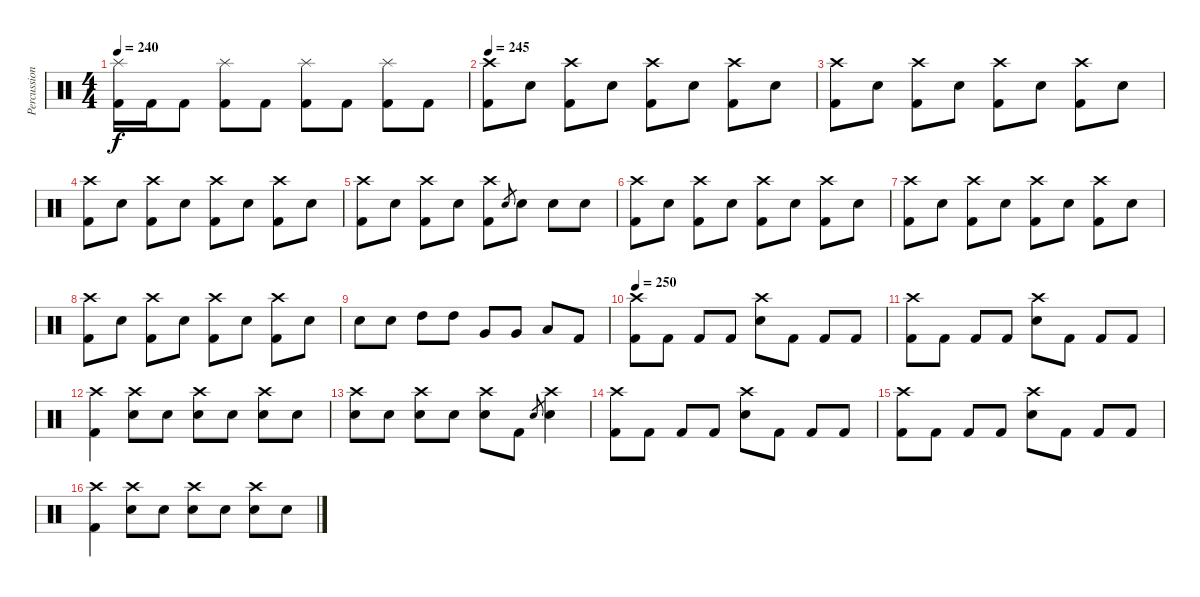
\track ("Percussion" "Percussion") {instrument percussion}
\staff {score}
\articulation defaults
\ts (4 4)
\tempo 240
\clef neutral
\ks c
("Splash (hit)" "Kick (hit) 2").16{dy f} "Kick (hit) 2".16 "Kick (hit) 2".8 ("Splash (hit)" "Kick (hit) 2").8 "Kick (hit) 2".8 ("Splash (hit)" "Kick (hit) 2").8 "Kick (hit) 2".8 ("Splash (hit)" "Kick (hit) 2").8 "Kick (hit) 2".8 |
\tempo 245
("Crash high (hit)" "Kick (hit) 2").8 "Electric Snare (hit)".8 ("Crash high (hit)" "Kick (hit) 2").8 "Electric Snare (hit)".8 ("Crash high (hit)" "Kick (hit) 2").8 "Electric Snare (hit)".8 ("Crash high (hit)" "Kick (hit) 2").8 "Electric Snare (hit)".8 |
("Crash high (hit)" "Kick (hit) 2").8 "Electric Snare (hit)".8 ("Crash high (hit)" "Kick (hit) 2").8 "Electric Snare (hit)".8 ("Crash high (hit)" "Kick (hit) 2").8 "Electric Snare (hit)".8 ("Crash high (hit)" "Kick (hit) 2").8 "Electric Snare (hit)".8 |
("Crash high (hit)" "Kick (hit) 2").8 "Electric Snare (hit)".8 ("Crash high (hit)" "Kick (hit) 2").8 "Electric Snare (hit)".8 ("Crash high (hit)" "Kick (hit) 2").8 "Electric Snare (hit)".8 ("Crash high (hit)" "Kick (hit) 2").8 "Electric Snare (hit)".8 |
("Crash high (hit)" "Kick (hit) 2").8 "Electric Snare (hit)".8 ("Crash high (hit)" "Kick (hit) 2").8 "Electric Snare (hit)".8 ("Crash high (hit)" "Kick (hit) 2").8 "Electric Snare (hit)".8{gr} "Electric Snare (hit)".8 "Electric Snare (hit)".8 "Electric Snare (hit)".8 |
("Crash high (hit)" "Kick (hit) 2").8 "Electric Snare (hit)".8 ("Crash high (hit)" "Kick (hit) 2").8 "Electric Snare (hit)".8 ("Crash high (hit)" "Kick (hit) 2").8 "Electric Snare (hit)".8 ("Crash high (hit)" "Kick (hit) 2").8 "Electric Snare (hit)".8 |
("Crash high (hit)" "Kick (hit) 2").8 "Electric Snare (hit)".8 ("Crash high (hit)" "Kick (hit) 2").8 "Electric Snare (hit)".8 ("Crash high (hit)" "Kick (hit) 2").8 "Electric Snare (hit)".8 ("Crash high (hit)" "Kick (hit) 2").8 "Electric Snare (hit)".8 |
("Crash high (hit)" "Kick (hit) 2").8 "Electric Snare (hit)".8 ("Crash high (hit)" "Kick (hit) 2").8 "Electric Snare (hit)".8 ("Crash high (hit)" "Kick (hit) 2").8 "Electric Snare (hit)".8 ("Crash high (hit)" "Kick (hit) 2").8 "Electric Snare (hit)".8 |
"Electric Snare (hit)".8 "Electric Snare (hit)".8 "High Tom (hit)".8 "High Tom (hit)".8 "Very Low Tom (hit)".8 "Very Low Tom (hit)".8 "Low Floor Tom (hit)".8 "Kick (hit) 2".8 |
\tempo 250
("Crash high (hit)" "Kick (hit) 2").8 "Kick (hit) 2".8 "Kick (hit) 2".8 "Kick (hit) 2".8 ("Crash high (hit)" "Electric Snare (hit)").8 "Kick (hit) 2".8 "Kick (hit) 2".8 "Kick (hit) 2".8 |
("Crash high (hit)" "Kick (hit) 2").8 "Kick (hit) 2".8 "Kick (hit) 2".8 "Kick (hit) 2".8 ("Crash high (hit)" "Electric Snare (hit)").8 "Kick (hit) 2".8 "Kick (hit) 2".8 "Kick (hit) 2".8 |
("Crash high (hit)" "Kick (hit) 2").4 ("Crash high (hit)" "Electric Snare (hit)").8 "Electric Snare (hit)".8 ("Crash high (hit)" "Electric Snare (hit)").8 "Electric Snare (hit)".8 ("Crash high (hit)" "Electric Snare (hit)").8 "Electric Snare (hit)".8 |
("Crash high (hit)" "Electric Snare (hit)").8 "Electric Snare (hit)".8 ("Crash high (hit)" "Electric Snare (hit)").8 "Electric Snare (hit)".8 ("Crash high (hit)" "Electric Snare (hit)").8 "Kick (hit) 2".8 "Electric Snare (hit)".8{gr} ("Crash high (hit)" "Electric Snare (hit)").4 |
("Crash high (hit)" "Kick (hit) 2").8 "Kick (hit) 2".8 "Kick (hit) 2".8 "Kick (hit) 2".8 ("Crash high (hit)" "Electric Snare (hit)").8 "Kick (hit) 2".8 "Kick (hit) 2".8 "Kick (hit) 2".8 |
("Crash high (hit)" "Kick (hit) 2").8 "Kick (hit) 2".8 "Kick (hit) 2".8 "Kick (hit) 2".8 ("Crash high (hit)" "Electric Snare (hit)").8 "Kick (hit) 2".8 "Kick (hit) 2".8 "Kick (hit) 2".8 |
("Crash high (hit)" "Kick (hit) 2").4 ("Crash high (hit)" "Electric Snare (hit)").8 "Electric Snare (hit)".8 ("Crash high (hit)" "Electric Snare (hit)").8 "Electric Snare (hit)".8 ("Crash high (hit)" "Electric Snare (hit)").8 "Electric Snare (hit)".8
